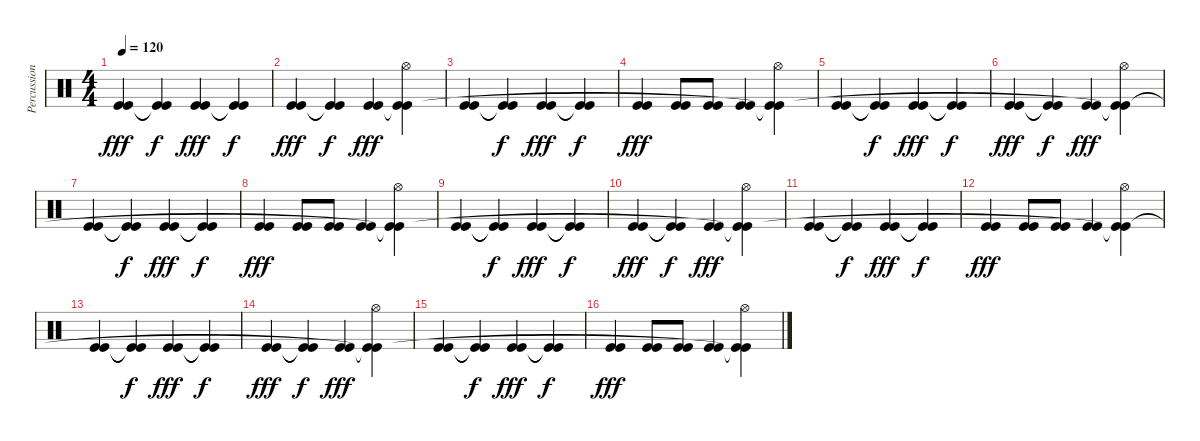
\track ("Percussions" "Percussion") {instrument percussion}
\staff {score}
\articulation defaults
\ts (4 4)
\tempo 120
\clef neutral
\ks c
("Kick (hit)" "Kick (hit)").4{dy fff} ("Kick (hit)"{t} "Kick (hit)"{t}).4{dy f} ("Kick (hit)" "Kick (hit)").4{dy fff} ("Kick (hit)"{t} "Kick (hit)"{t}).4{dy f} |
("Kick (hit)" "Kick (hit)").4{dy fff} ("Kick (hit)"{t} "Kick (hit)"{t}).4{dy f} ("Kick (hit)" "Kick (hit)").4{dy fff} ("Hi-Hat (open)" "Kick (hit)"{t} "Kick (hit)"{t}).4 |
("Kick (hit)" "Kick (hit)").4 ("Kick (hit)"{t} "Kick (hit)"{t}).4{dy f} ("Kick (hit)" "Kick (hit)").4{dy fff} ("Kick (hit)"{t} "Kick (hit)"{t}).4{dy f} |
("Kick (hit)" "Kick (hit)").4{dy fff} ("Kick (hit)" "Kick (hit)").8 ("Kick (hit)" "Kick (hit)").8 ("Kick (hit)" "Kick (hit)").4 ("Hi-Hat (open)" "Kick (hit)"{t} "Kick (hit)"{t}).4 |
("Kick (hit)" "Kick (hit)").4 ("Kick (hit)"{t} "Kick (hit)"{t}).4{dy f} ("Kick (hit)" "Kick (hit)").4{dy fff} ("Kick (hit)"{t} "Kick (hit)"{t}).4{dy f} |
("Kick (hit)" "Kick (hit)").4{dy fff} ("Kick (hit)"{t} "Kick (hit)"{t}).4{dy f} ("Kick (hit)" "Kick (hit)").4{dy fff} ("Hi-Hat (open)" "Kick (hit)"{t} "Kick (hit)"{t}).4 |
("Kick (hit)" "Kick (hit)").4 ("Kick (hit)"{t} "Kick (hit)"{t}).4{dy f} ("Kick (hit)" "Kick (hit)").4{dy fff} ("Kick (hit)"{t} "Kick (hit)"{t}).4{dy f} |
("Kick (hit)" "Kick (hit)").4{dy fff} ("Kick (hit)" "Kick (hit)").8 ("Kick (hit)" "Kick (hit)").8 ("Kick (hit)" "Kick (hit)").4 ("Hi-Hat (open)" "Kick (hit)"{t} "Kick (hit)"{t}).4 |
("Kick (hit)" "Kick (hit)").4 ("Kick (hit)"{t} "Kick (hit)"{t}).4{dy f} ("Kick (hit)" "Kick (hit)").4{dy fff} ("Kick (hit)"{t} "Kick (hit)"{t}).4{dy f} |
("Kick (hit)" "Kick (hit)").4{dy fff} ("Kick (hit)"{t} "Kick (hit)"{t}).4{dy f} ("Kick (hit)" "Kick (hit)").4{dy fff} ("Hi-Hat (open)" "Kick (hit)"{t} "Kick (hit)"{t}).4 |
("Kick (hit)" "Kick (hit)").4 ("Kick (hit)"{t} "Kick (hit)"{t}).4{dy f} ("Kick (hit)" "Kick (hit)").4{dy fff} ("Kick (hit)"{t} "Kick (hit)"{t}).4{dy f} |
("Kick (hit)" "Kick (hit)").4{dy fff} ("Kick (hit)" "Kick (hit)").8 ("Kick (hit)" "Kick (hit)").8 ("Kick (hit)" "Kick (hit)").4 ("Hi-Hat (open)" "Kick (hit)"{t} "Kick (hit)"{t}).4 |
("Kick (hit)" "Kick (hit)").4 ("Kick (hit)"{t} "Kick (hit)"{t}).4{dy f} ("Kick (hit)" "Kick (hit)").4{dy fff} ("Kick (hit)"{t} "Kick (hit)"{t}).4{dy f} |
("Kick (hit)" "Kick (hit)").4{dy fff} ("Kick (hit)"{t} "Kick (hit)"{t}).4{dy f} ("Kick (hit)" "Kick (hit)").4{dy fff} ("Hi-Hat (open)" "Kick (hit)"{t} "Kick (hit)"{t}).4 |
("Kick (hit)" "Kick (hit)").4 ("Kick (hit)"{t} "Kick (hit)"{t}).4{dy f} ("Kick (hit)" "Kick (hit)").4{dy fff} ("Kick (hit)"{t} "Kick (hit)"{t}).4{dy f} |
("Kick (hit)" "Kick (hit)").4{dy fff} ("Kick (hit)" "Kick (hit)").8 ("Kick (hit)" "Kick (hit)").8 ("Kick (hit)" "Kick (hit)").4 ("Hi-Hat (open)" "Kick (hit)"{t} "Kick (hit)"{t}).4
